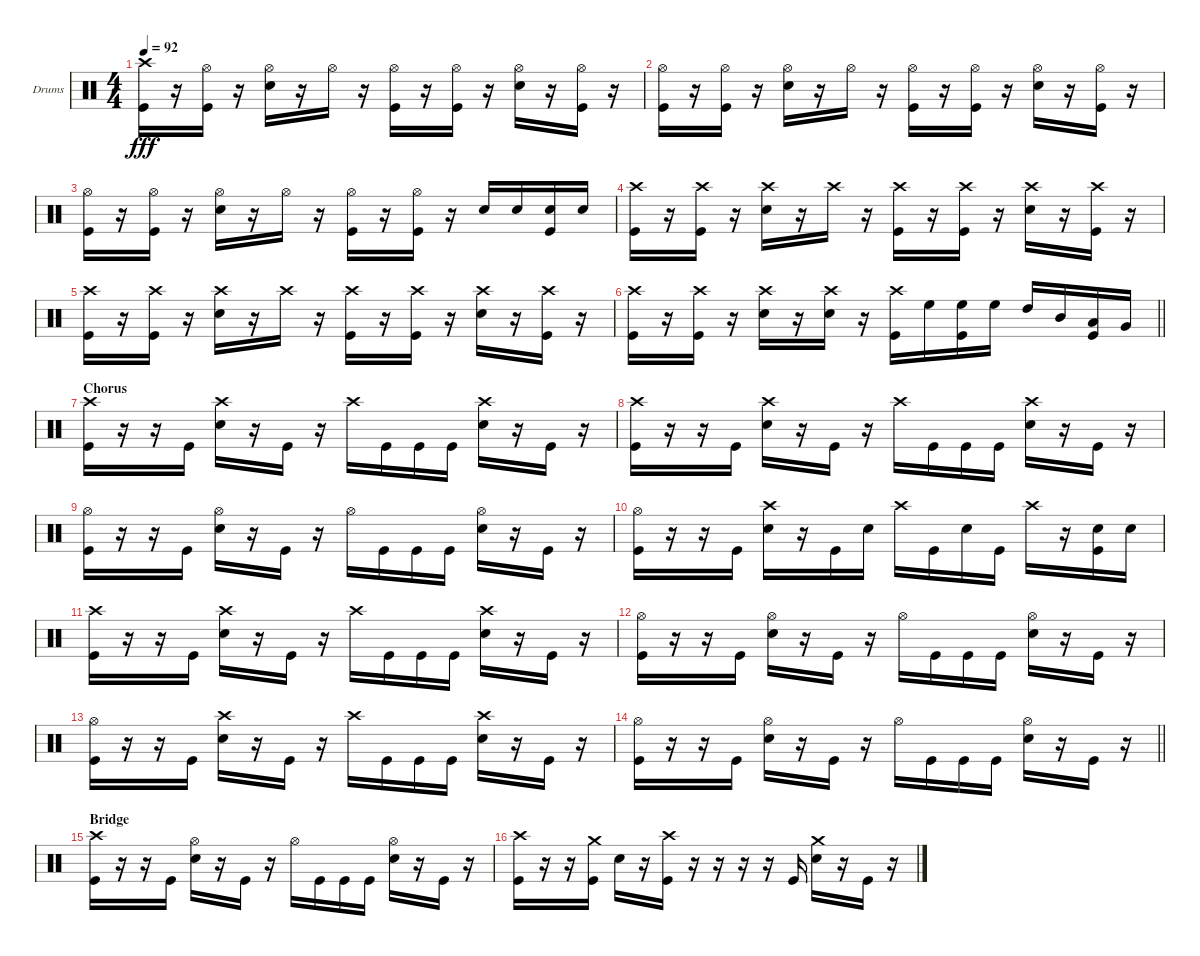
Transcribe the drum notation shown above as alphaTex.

\bracketExtendMode groupsimilarinstruments
\firstSystemTrackNameOrientation horizontal
\otherSystemsTrackNameOrientation horizontal
\track ("Drums" "Drums") {instrument percussion}
\staff {score}
\articulation defaults
\ts (4 4)
\tempo 92
\clef neutral
\ks c
("Crash high (hit)" "Kick (hit)").16{dy fff} r.16 ("Hi-Hat (open)" "Kick (hit)").16 r.16 ("Hi-Hat (open)" "Snare (hit) 2").16 r.16 "Hi-Hat (open)".16 r.16 ("Hi-Hat (open)" "Kick (hit)").16 r.16 ("Hi-Hat (open)" "Kick (hit)").16 r.16 ("Hi-Hat (open)" "Snare (hit) 2").16 r.16 ("Hi-Hat (open)" "Kick (hit)").16 r.16 |
("Hi-Hat (open)" "Kick (hit)").16 r.16 ("Hi-Hat (open)" "Kick (hit)").16 r.16 ("Hi-Hat (open)" "Snare (hit) 2").16 r.16 "Hi-Hat (open)".16 r.16 ("Hi-Hat (open)" "Kick (hit)").16 r.16 ("Hi-Hat (open)" "Kick (hit)").16 r.16 ("Hi-Hat (open)" "Snare (hit) 2").16 r.16 ("Hi-Hat (open)" "Kick (hit)").16 r.16 |
("Hi-Hat (open)" "Kick (hit)").16 r.16 ("Hi-Hat (open)" "Kick (hit)").16 r.16 ("Hi-Hat (open)" "Snare (hit) 2").16 r.16 "Hi-Hat (open)".16 r.16 ("Hi-Hat (open)" "Kick (hit)").16 r.16 ("Hi-Hat (open)" "Kick (hit)").16 r.16 "Snare (hit) 2".16 "Snare (hit) 2".16 ("Snare (hit) 2" "Kick (hit)").16 "Snare (hit) 2".16 |
("Crash high (hit)" "Kick (hit)").16 r.16 ("Crash high (hit)" "Kick (hit)").16 r.16 ("Crash high (hit)" "Snare (hit) 2").16 r.16 "Crash high (hit)".16 r.16 ("Crash high (hit)" "Kick (hit)").16 r.16 ("Crash high (hit)" "Kick (hit)").16 r.16 ("Crash high (hit)" "Snare (hit) 2").16 r.16 ("Crash high (hit)" "Kick (hit)").16 r.16 |
("Crash high (hit)" "Kick (hit)").16 r.16 ("Crash high (hit)" "Kick (hit)").16 r.16 ("Crash high (hit)" "Snare (hit) 2").16 r.16 "Crash high (hit)".16 r.16 ("Crash high (hit)" "Kick (hit)").16 r.16 ("Crash high (hit)" "Kick (hit)").16 r.16 ("Crash high (hit)" "Snare (hit) 2").16 r.16 ("Crash high (hit)" "Kick (hit)").16 r.16 |
\barLineRight lightlight
("Crash high (hit)" "Kick (hit)").16 r.16 ("Crash high (hit)" "Kick (hit)").16 r.16 ("Crash high (hit)" "Snare (hit) 2").16 r.16 ("Crash high (hit)" "Snare (hit) 2").16 r.16 ("Crash high (hit)" "Kick (hit)").16 "High Floor Tom (hit)".16 ("High Floor Tom (hit)" "Kick (hit)").16 "High Floor Tom (hit)".16 "High Tom (hit)".16 "Mid Tom (hit)".16 ("Low Tom (hit)" "Kick (hit)").16 "Very Low Tom (hit)".16 |
\section ("" "Chorus")
("Crash high (hit)" "Kick (hit)").16 r.16 r.16 "Kick (hit)".16 ("Snare (hit) 2" "Crash high (hit)").16 r.16 "Kick (hit)".16 r.16 "Crash high (hit)".16 "Kick (hit)".16 "Kick (hit)".16 "Kick (hit)".16 ("Snare (hit) 2" "Crash high (hit)").16 r.16 "Kick (hit)".16 r.16 |
("Crash high (hit)" "Kick (hit)").16 r.16 r.16 "Kick (hit)".16 ("Snare (hit) 2" "Crash high (hit)").16 r.16 "Kick (hit)".16 r.16 "Crash high (hit)".16 "Kick (hit)".16 "Kick (hit)".16 "Kick (hit)".16 ("Snare (hit) 2" "Crash high (hit)").16 r.16 "Kick (hit)".16 r.16 |
("Kick (hit)" "Hi-Hat (open)").16 r.16 r.16 "Kick (hit)".16 ("Snare (hit) 2" "Hi-Hat (open)").16 r.16 "Kick (hit)".16 r.16 "Hi-Hat (open)".16 "Kick (hit)".16 "Kick (hit)".16 "Kick (hit)".16 ("Snare (hit) 2" "Hi-Hat (open)").16 r.16 "Kick (hit)".16 r.16 |
("Kick (hit)" "Hi-Hat (open)").16 r.16 r.16 "Kick (hit)".16 ("Snare (hit) 2" "Crash high (hit)").16 r.16 "Kick (hit)".16 "Snare (hit) 2".16 "Crash high (hit)".16 "Kick (hit)".16 "Snare (hit) 2".16 "Kick (hit)".16 "Crash high (hit)".16 r.16 ("Snare (hit) 2" "Kick (hit)").16 "Snare (hit) 2".16 |
("Crash high (hit)" "Kick (hit)").16 r.16 r.16 "Kick (hit)".16 ("Snare (hit) 2" "Crash high (hit)").16 r.16 "Kick (hit)".16 r.16 "Crash high (hit)".16 "Kick (hit)".16 "Kick (hit)".16 "Kick (hit)".16 ("Snare (hit) 2" "Crash high (hit)").16 r.16 "Kick (hit)".16 r.16 |
("Hi-Hat (open)" "Kick (hit)").16 r.16 r.16 "Kick (hit)".16 ("Hi-Hat (open)" "Snare (hit) 2").16 r.16 "Kick (hit)".16 r.16 "Hi-Hat (open)".16 "Kick (hit)".16 "Kick (hit)".16 "Kick (hit)".16 ("Snare (hit) 2" "Hi-Hat (open)").16 r.16 "Kick (hit)".16 r.16 |
("Kick (hit)" "Hi-Hat (open)").16 r.16 r.16 "Kick (hit)".16 ("Snare (hit) 2" "Crash high (hit)").16 r.16 "Kick (hit)".16 r.16 "Crash high (hit)".16 "Kick (hit)".16 "Kick (hit)".16 "Kick (hit)".16 ("Snare (hit) 2" "Crash high (hit)").16 r.16 "Kick (hit)".16 r.16 |
\barLineRight lightlight
("Hi-Hat (open)" "Kick (hit)").16 r.16 r.16 "Kick (hit)".16 ("Snare (hit) 2" "Hi-Hat (open)").16 r.16 "Kick (hit)".16 r.16 "Hi-Hat (open)".16 "Kick (hit)".16 "Kick (hit)".16 "Kick (hit)".16 ("Hi-Hat (open)" "Snare (hit) 2").16 r.16 "Kick (hit)".16 r.16 |
\section ("" "Bridge")
("Crash high (hit)" "Kick (hit)").16 r.16 r.16 "Kick (hit)".16 ("Snare (hit) 2" "Hi-Hat (open)").16 r.16 "Kick (hit)".16 r.16 "Hi-Hat (open)".16 "Kick (hit)".16 "Kick (hit)".16 "Kick (hit)".16 ("Snare (hit) 2" "Hi-Hat (open)").16 r.16 "Kick (hit)".16 r.16 |
("Crash high (hit)" "Kick (hit)").16 r.16 r.16 ("Crash medium (hit)" "Kick (hit)").16 "Snare (hit) 2".16 r.16 ("Crash high (hit)" "Kick (hit)").16 r.16 r.16 r.16 r.16 "Kick (hit)".16 ("Snare (hit) 2" "Crash medium (hit)").16 r.16 "Kick (hit)".16 r.16
